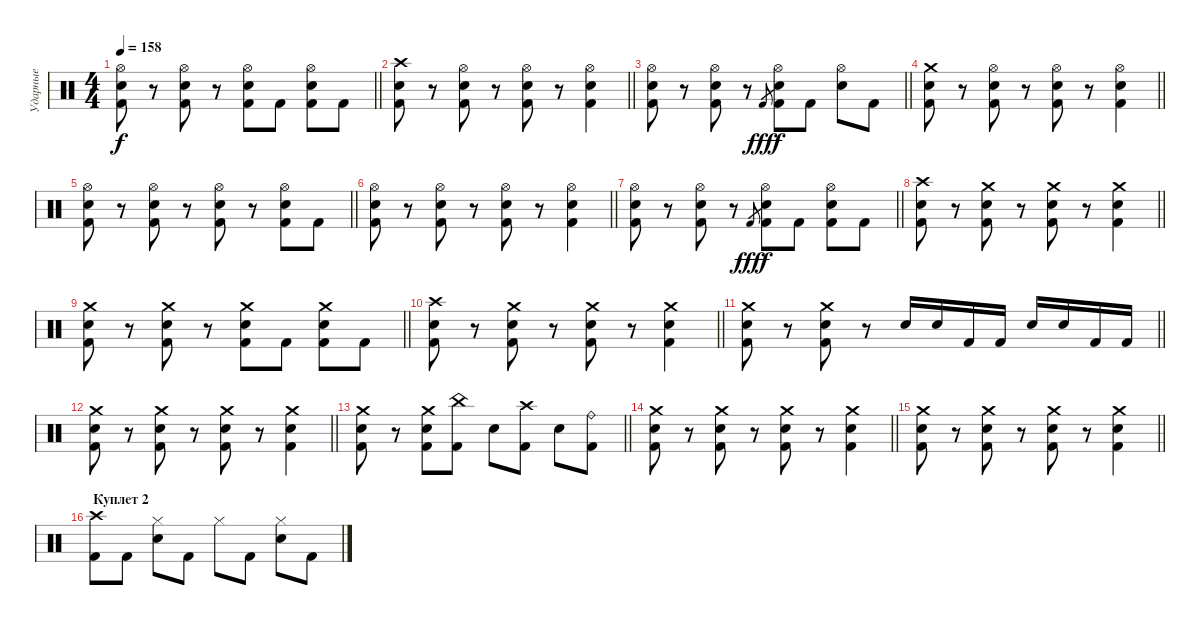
\track ("Ударные" "Ударные") {instrument percussion}
\staff {score}
\articulation defaults
\ts (4 4)
\tempo 158
\clef neutral
\barLineRight lightlight
\ks c
("Hi-Hat (open)" "Electric Snare (hit)" "Kick (hit) 2").8{dy f} r.8 ("Hi-Hat (open)" "Electric Snare (hit)" "Kick (hit) 2").8 r.8 ("Hi-Hat (open)" "Electric Snare (hit)" "Kick (hit) 2").8 "Kick (hit) 2".8 ("Hi-Hat (open)" "Electric Snare (hit)" "Kick (hit) 2").8 "Kick (hit) 2".8 |
\barLineRight lightlight
("Crash high (hit)" "Electric Snare (hit)" "Kick (hit) 2").8 r.8 ("Hi-Hat (open)" "Electric Snare (hit)" "Kick (hit) 2").8 r.8 ("Hi-Hat (open)" "Electric Snare (hit)" "Kick (hit) 2").8 r.8 ("Hi-Hat (open)" "Electric Snare (hit)" "Kick (hit) 2").4 |
\barLineRight lightlight
("Hi-Hat (open)" "Electric Snare (hit)" "Kick (hit) 2").8 r.8 ("Hi-Hat (open)" "Electric Snare (hit)" "Kick (hit) 2").8 r.8 "Kick (hit) 2".8{gr dy fff} ("Hi-Hat (open)" "Electric Snare (hit)" "Kick (hit) 2").8{dy f} "Kick (hit) 2".8 ("Hi-Hat (open)" "Electric Snare (hit)").8 "Kick (hit) 2".8 |
\barLineRight lightlight
("Crash medium (hit)" "Electric Snare (hit)" "Kick (hit) 2").8 r.8 ("Hi-Hat (open)" "Electric Snare (hit)" "Kick (hit) 2").8 r.8 ("Hi-Hat (open)" "Electric Snare (hit)" "Kick (hit) 2").8 r.8 ("Hi-Hat (open)" "Electric Snare (hit)" "Kick (hit) 2").4 |
\barLineRight lightlight
("Hi-Hat (open)" "Electric Snare (hit)" "Kick (hit) 2").8 r.8 ("Hi-Hat (open)" "Electric Snare (hit)" "Kick (hit) 2").8 r.8 ("Hi-Hat (open)" "Electric Snare (hit)" "Kick (hit) 2").8 r.8 ("Hi-Hat (open)" "Electric Snare (hit)" "Kick (hit) 2").8 "Kick (hit) 2".8 |
\barLineRight lightlight
("Hi-Hat (open)" "Electric Snare (hit)" "Kick (hit) 2").8 r.8 ("Hi-Hat (open)" "Electric Snare (hit)" "Kick (hit) 2").8 r.8 ("Hi-Hat (open)" "Electric Snare (hit)" "Kick (hit) 2").8 r.8 ("Hi-Hat (open)" "Electric Snare (hit)" "Kick (hit) 2").4 |
\barLineRight lightlight
("Hi-Hat (open)" "Electric Snare (hit)" "Kick (hit) 2").8 r.8 ("Hi-Hat (open)" "Electric Snare (hit)" "Kick (hit) 2").8 r.8 "Kick (hit) 2".8{gr dy fff} ("Hi-Hat (open)" "Electric Snare (hit)" "Kick (hit) 2").8{dy f} "Kick (hit) 2".8 ("Hi-Hat (open)" "Electric Snare (hit)" "Kick (hit) 2").8 "Kick (hit) 2".8 |
\barLineRight lightlight
("Crash high (hit)" "Electric Snare (hit)" "Kick (hit) 2").8 r.8 ("Crash medium (hit)" "Electric Snare (hit)" "Kick (hit) 2").8 r.8 ("Crash medium (hit)" "Electric Snare (hit)" "Kick (hit) 2").8 r.8 ("Crash medium (hit)" "Electric Snare (hit)" "Kick (hit) 2").4 |
\barLineRight lightlight
("Crash medium (hit)" "Electric Snare (hit)" "Kick (hit) 2").8 r.8 ("Crash medium (hit)" "Electric Snare (hit)" "Kick (hit) 2").8 r.8 ("Crash medium (hit)" "Electric Snare (hit)" "Kick (hit) 2").8 "Kick (hit) 2".8 ("Crash medium (hit)" "Electric Snare (hit)" "Kick (hit) 2").8 "Kick (hit) 2".8 |
\barLineRight lightlight
("Crash high (hit)" "Electric Snare (hit)" "Kick (hit) 2").8 r.8 ("Crash medium (hit)" "Electric Snare (hit)" "Kick (hit) 2").8 r.8 ("Crash medium (hit)" "Electric Snare (hit)" "Kick (hit) 2").8 r.8 ("Crash medium (hit)" "Electric Snare (hit)" "Kick (hit) 2").4 |
\barLineRight lightlight
("Crash medium (hit)" "Electric Snare (hit)" "Kick (hit) 2").8 r.8 ("Crash medium (hit)" "Electric Snare (hit)" "Kick (hit) 2").8 r.8 "Electric Snare (hit)".16 "Electric Snare (hit)".16 "Kick (hit) 2".16 "Kick (hit) 2".16 "Electric Snare (hit)".16 "Electric Snare (hit)".16 "Kick (hit) 2".16 "Kick (hit) 2".16 |
\barLineRight lightlight
("Crash medium (hit)" "Electric Snare (hit)" "Kick (hit) 2").8 r.8 ("Crash medium (hit)" "Electric Snare (hit)" "Kick (hit) 2").8 r.8 ("Crash medium (hit)" "Electric Snare (hit)" "Kick (hit) 2").8 r.8 ("Crash medium (hit)" "Electric Snare (hit)" "Kick (hit) 2").4 |
\barLineRight lightlight
("Crash medium (hit)" "Electric Snare (hit)" "Kick (hit) 2").8 r.8 ("Crash medium (hit)" "Electric Snare (hit)" "Kick (hit) 2").8 ("China (hit)" "Kick (hit) 2").8 "Electric Snare (hit)".8 ("Crash high (hit)" "Kick (hit) 2").8 "Electric Snare (hit)".8 ("Ride (bell)" "Kick (hit) 2").8 |
\barLineRight lightlight
("Crash medium (hit)" "Electric Snare (hit)" "Kick (hit) 2").8 r.8 ("Crash medium (hit)" "Electric Snare (hit)" "Kick (hit) 2").8 r.8 ("Crash medium (hit)" "Electric Snare (hit)" "Kick (hit) 2").8 r.8 ("Crash medium (hit)" "Electric Snare (hit)" "Kick (hit) 2").4 |
\barLineRight lightlight
("Crash medium (hit)" "Electric Snare (hit)" "Kick (hit) 2").8 r.8 ("Crash medium (hit)" "Electric Snare (hit)" "Kick (hit) 2").8 r.8 ("Crash medium (hit)" "Electric Snare (hit)" "Kick (hit) 2").8 r.8 ("Crash medium (hit)" "Electric Snare (hit)" "Kick (hit) 2").4 |
\section ("" " Куплет 2")
("Crash high (hit)" "Kick (hit) 2").8 "Kick (hit) 2".8 ("Hi-Hat (closed)" "Electric Snare (hit)").8 "Kick (hit) 2".8 "Hi-Hat (closed)".8 "Kick (hit) 2".8 ("Hi-Hat (closed)" "Electric Snare (hit)").8 "Kick (hit) 2".8
